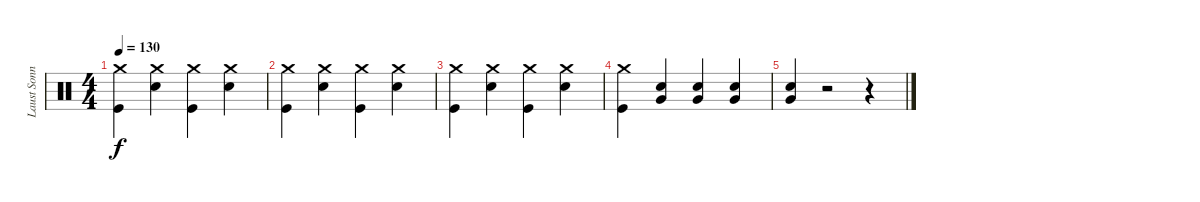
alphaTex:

\track ("Laust Sonne (Trommer)" "Laust Sonn") {instrument percussion}
\staff {score}
\articulation defaults
\ts (4 4)
\tempo 130
\clef neutral
\ks c
("Crash medium (hit)" "Kick (hit)").4{dy f} ("Crash medium (hit)" "Snare (hit) 2").4 ("Crash medium (hit)" "Kick (hit)").4 ("Crash medium (hit)" "Snare (hit) 2").4 |
("Crash medium (hit)" "Kick (hit)").4 ("Crash medium (hit)" "Snare (hit) 2").4 ("Crash medium (hit)" "Kick (hit)").4 ("Crash medium (hit)" "Snare (hit) 2").4 |
("Crash medium (hit)" "Kick (hit)").4 ("Crash medium (hit)" "Snare (hit) 2").4 ("Crash medium (hit)" "Kick (hit)").4 ("Crash medium (hit)" "Snare (hit) 2").4 |
("Crash medium (hit)" "Kick (hit)").4 ("Very Low Tom (hit)" "Snare (hit) 2").4 ("Very Low Tom (hit)" "Snare (hit) 2").4 ("Very Low Tom (hit)" "Snare (hit) 2").4 |
("Very Low Tom (hit)" "Snare (hit) 2").4 r.2 r.4
